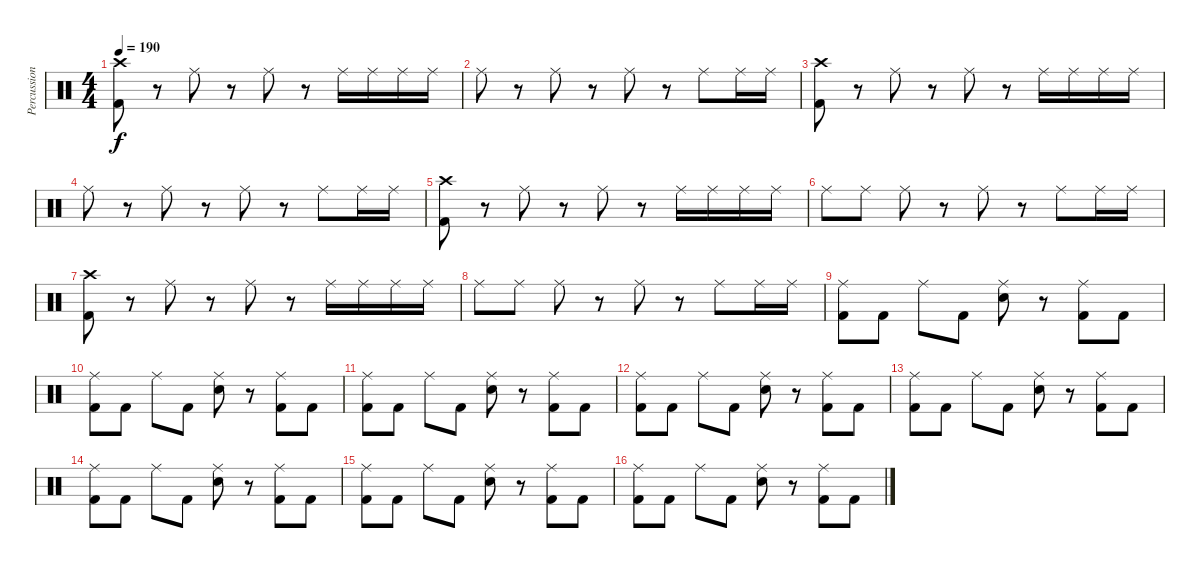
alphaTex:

\track ("Percussion" "Percussion") {instrument percussion}
\staff {score}
\articulation defaults
\ts (4 4)
\tempo 190
\clef neutral
\ks c
("Crash high (hit)" "Kick (hit) 2").8{dy f} r.8 "Ride (middle)".8 r.8 "Ride (middle)".8 r.8 "Ride (middle)".16 "Ride (middle)".16 "Ride (middle)".16 "Ride (middle)".16 |
"Ride (middle)".8 r.8 "Ride (middle)".8 r.8 "Ride (middle)".8 r.8 "Ride (middle)".8 "Ride (middle)".16 "Ride (middle)".16 |
("Crash high (hit)" "Kick (hit) 2").8 r.8 "Ride (middle)".8 r.8 "Ride (middle)".8 r.8 "Ride (middle)".16 "Ride (middle)".16 "Ride (middle)".16 "Ride (middle)".16 |
"Ride (middle)".8 r.8 "Ride (middle)".8 r.8 "Ride (middle)".8 r.8 "Ride (middle)".8 "Ride (middle)".16 "Ride (middle)".16 |
("Crash high (hit)" "Kick (hit) 2").8 r.8 "Ride (middle)".8 r.8 "Ride (middle)".8 r.8 "Ride (middle)".16 "Ride (middle)".16 "Ride (middle)".16 "Ride (middle)".16 |
"Ride (middle)".8 "Ride (middle)".8 "Ride (middle)".8 r.8 "Ride (middle)".8 r.8 "Ride (middle)".8 "Ride (middle)".16 "Ride (middle)".16 |
("Crash high (hit)" "Kick (hit) 2").8 r.8 "Ride (middle)".8 r.8 "Ride (middle)".8 r.8 "Ride (middle)".16 "Ride (middle)".16 "Ride (middle)".16 "Ride (middle)".16 |
"Ride (middle)".8 "Ride (middle)".8 "Ride (middle)".8 r.8 "Ride (middle)".8 r.8 "Ride (middle)".8 "Ride (middle)".16 "Ride (middle)".16 |
("Ride (middle)" "Kick (hit) 2").8 "Kick (hit) 2".8 "Ride (middle)".8 "Kick (hit) 2".8 ("Ride (middle)" "Snare (hit) 2").8 r.8 ("Ride (middle)" "Kick (hit) 2").8 "Kick (hit) 2".8 |
("Ride (middle)" "Kick (hit) 2").8 "Kick (hit) 2".8 "Ride (middle)".8 "Kick (hit) 2".8 ("Ride (middle)" "Snare (hit) 2").8 r.8 ("Ride (middle)" "Kick (hit) 2").8 "Kick (hit) 2".8 |
("Ride (middle)" "Kick (hit) 2").8 "Kick (hit) 2".8 "Ride (middle)".8 "Kick (hit) 2".8 ("Ride (middle)" "Snare (hit) 2").8 r.8 ("Ride (middle)" "Kick (hit) 2").8 "Kick (hit) 2".8 |
("Ride (middle)" "Kick (hit) 2").8 "Kick (hit) 2".8 "Ride (middle)".8 "Kick (hit) 2".8 ("Ride (middle)" "Snare (hit) 2").8 r.8 ("Ride (middle)" "Kick (hit) 2").8 "Kick (hit) 2".8 |
("Ride (middle)" "Kick (hit) 2").8 "Kick (hit) 2".8 "Ride (middle)".8 "Kick (hit) 2".8 ("Ride (middle)" "Snare (hit) 2").8 r.8 ("Ride (middle)" "Kick (hit) 2").8 "Kick (hit) 2".8 |
("Ride (middle)" "Kick (hit) 2").8 "Kick (hit) 2".8 "Ride (middle)".8 "Kick (hit) 2".8 ("Ride (middle)" "Snare (hit) 2").8 r.8 ("Ride (middle)" "Kick (hit) 2").8 "Kick (hit) 2".8 |
("Ride (middle)" "Kick (hit) 2").8 "Kick (hit) 2".8 "Ride (middle)".8 "Kick (hit) 2".8 ("Ride (middle)" "Snare (hit) 2").8 r.8 ("Ride (middle)" "Kick (hit) 2").8 "Kick (hit) 2".8 |
("Ride (middle)" "Kick (hit) 2").8 "Kick (hit) 2".8 "Ride (middle)".8 "Kick (hit) 2".8 ("Ride (middle)" "Snare (hit) 2").8 r.8 ("Ride (middle)" "Kick (hit) 2").8 "Kick (hit) 2".8
